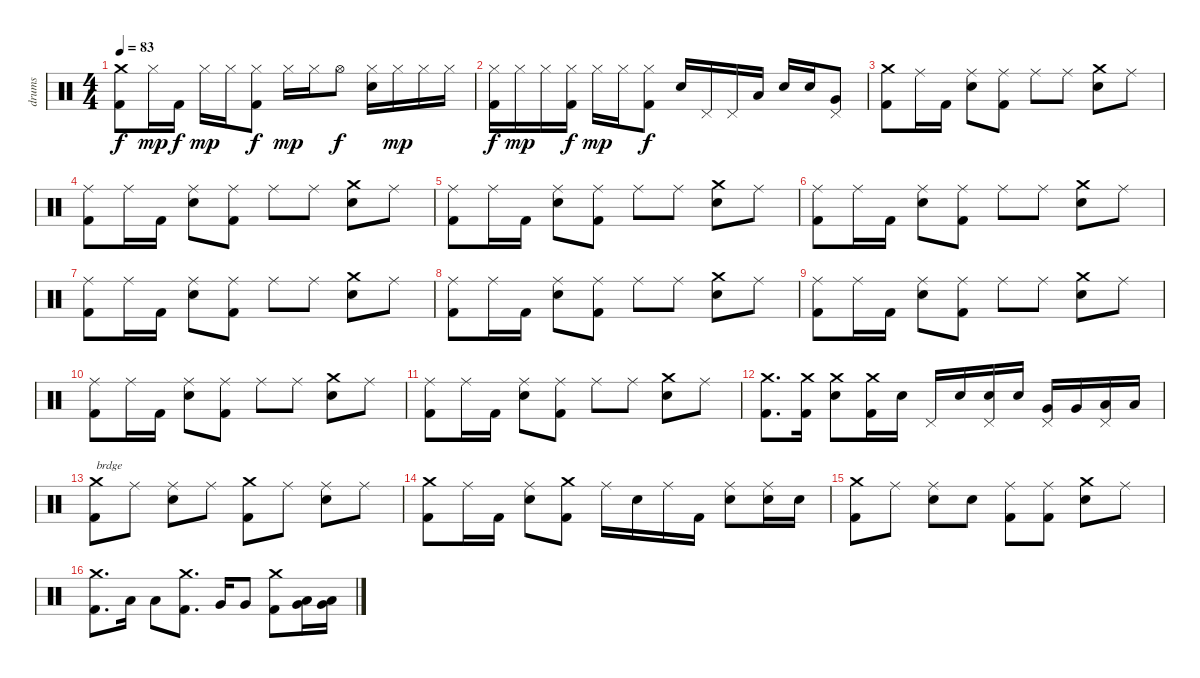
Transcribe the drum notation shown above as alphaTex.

\track ("drums" "drums") {instrument percussion}
\staff {score}
\articulation defaults
\ts (4 4)
\tempo 83
\clef neutral
\ks c
("Crash medium (hit)" "Kick (hit) 2").8{dy f} "Hi-Hat (closed)".16{dy mp} "Kick (hit) 2".16{dy f} "Hi-Hat (closed)".16{dy mp} "Hi-Hat (closed)".16 ("Hi-Hat (closed)" "Kick (hit) 2").8{dy f} "Hi-Hat (closed)".16{dy mp} "Hi-Hat (closed)".16 "Hi-Hat (open)".8{dy f} ("Hi-Hat (closed)" "Electric Snare (hit)").16 "Hi-Hat (closed)".16{dy mp} "Hi-Hat (closed)".16 "Hi-Hat (closed)".16 |
("Hi-Hat (closed)" "Kick (hit) 2").16{dy f} "Hi-Hat (closed)".16{dy mp} "Hi-Hat (closed)".16 ("Hi-Hat (closed)" "Kick (hit) 2").16{dy f} "Hi-Hat (closed)".16{dy mp} "Hi-Hat (closed)".16 ("Hi-Hat (closed)" "Kick (hit) 2").8{dy f} "Electric Snare (hit)".16 "Pedal Hi-Hat (hit)".16 "Pedal Hi-Hat (hit)".16 "Low Tom (hit)".16 "Electric Snare (hit)".16 "Electric Snare (hit)".16 ("Very Low Tom (hit)" "Pedal Hi-Hat (hit)").8 |
("Crash medium (hit)" "Kick (hit) 2").8 "Ride (middle)".16 "Kick (hit) 2".16 ("Ride (middle)" "Electric Snare (hit)").8 ("Ride (middle)" "Kick (hit) 2").8 "Ride (middle)".8 "Ride (middle)".8 ("Crash medium (hit)" "Electric Snare (hit)").8 "Ride (middle)".8 |
("Ride (middle)" "Kick (hit) 2").8 "Ride (middle)".16 "Kick (hit) 2".16 ("Ride (middle)" "Electric Snare (hit)").8 ("Ride (middle)" "Kick (hit) 2").8 "Ride (middle)".8 "Ride (middle)".8 ("Crash medium (hit)" "Electric Snare (hit)").8 "Ride (middle)".8 |
("Ride (middle)" "Kick (hit) 2").8 "Ride (middle)".16 "Kick (hit) 2".16 ("Ride (middle)" "Electric Snare (hit)").8 ("Ride (middle)" "Kick (hit) 2").8 "Ride (middle)".8 "Ride (middle)".8 ("Crash medium (hit)" "Electric Snare (hit)").8 "Ride (middle)".8 |
("Ride (middle)" "Kick (hit) 2").8 "Ride (middle)".16 "Kick (hit) 2".16 ("Ride (middle)" "Electric Snare (hit)").8 ("Ride (middle)" "Kick (hit) 2").8 "Ride (middle)".8 "Ride (middle)".8 ("Crash medium (hit)" "Electric Snare (hit)").8 "Ride (middle)".8 |
("Ride (middle)" "Kick (hit) 2").8 "Ride (middle)".16 "Kick (hit) 2".16 ("Ride (middle)" "Electric Snare (hit)").8 ("Ride (middle)" "Kick (hit) 2").8 "Ride (middle)".8 "Ride (middle)".8 ("Crash medium (hit)" "Electric Snare (hit)").8 "Ride (middle)".8 |
("Ride (middle)" "Kick (hit) 2").8 "Ride (middle)".16 "Kick (hit) 2".16 ("Ride (middle)" "Electric Snare (hit)").8 ("Ride (middle)" "Kick (hit) 2").8 "Ride (middle)".8 "Ride (middle)".8 ("Crash medium (hit)" "Electric Snare (hit)").8 "Ride (middle)".8 |
("Ride (middle)" "Kick (hit) 2").8 "Ride (middle)".16 "Kick (hit) 2".16 ("Ride (middle)" "Electric Snare (hit)").8 ("Ride (middle)" "Kick (hit) 2").8 "Ride (middle)".8 "Ride (middle)".8 ("Crash medium (hit)" "Electric Snare (hit)").8 "Ride (middle)".8 |
("Ride (middle)" "Kick (hit) 2").8 "Ride (middle)".16 "Kick (hit) 2".16 ("Ride (middle)" "Electric Snare (hit)").8 ("Ride (middle)" "Kick (hit) 2").8 "Ride (middle)".8 "Ride (middle)".8 ("Crash medium (hit)" "Electric Snare (hit)").8 "Ride (middle)".8 |
("Ride (middle)" "Kick (hit) 2").8 "Ride (middle)".16 "Kick (hit) 2".16 ("Ride (middle)" "Electric Snare (hit)").8 ("Ride (middle)" "Kick (hit) 2").8 "Ride (middle)".8 "Ride (middle)".8 ("Crash medium (hit)" "Electric Snare (hit)").8 "Ride (middle)".8 |
("Crash medium (hit)" "Kick (hit) 2").8{d} ("Crash medium (hit)" "Kick (hit) 2").16 ("Crash medium (hit)" "Electric Snare (hit)").8 ("Crash medium (hit)" "Kick (hit) 2").16 "Electric Snare (hit)".16 "Pedal Hi-Hat (hit)".16 "Electric Snare (hit)".16 ("Electric Snare (hit)" "Pedal Hi-Hat (hit)").16 "Electric Snare (hit)".16 ("Very Low Tom (hit)" "Pedal Hi-Hat (hit)").16 "Very Low Tom (hit)".16 ("Pedal Hi-Hat (hit)" "Low Floor Tom (hit)").16 "Low Floor Tom (hit)".16 |
("Crash medium (hit)" "Kick (hit) 2").8{txt "brdge"} "Ride (middle)".8 ("Ride (middle)" "Electric Snare (hit)").8 "Ride (middle)".8 ("Crash medium (hit)" "Kick (hit) 2").8 "Ride (middle)".8 ("Ride (middle)" "Electric Snare (hit)").8 "Ride (middle)".8 |
("Crash medium (hit)" "Kick (hit) 2").8 "Ride (middle)".16 "Kick (hit) 2".16 ("Ride (middle)" "Electric Snare (hit)").8 ("Crash medium (hit)" "Kick (hit) 2").8 "Ride (middle)".16 "Electric Snare (hit)".16 "Ride (middle)".16 "Kick (hit) 2".16 ("Ride (middle)" "Electric Snare (hit)").8 ("Ride (middle)" "Electric Snare (hit)").16 "Electric Snare (hit)".16 |
("Crash medium (hit)" "Kick (hit) 2").8 "Ride (middle)".8 ("Ride (middle)" "Electric Snare (hit)").8 "Snare (hit)".8 ("Ride (middle)" "Kick (hit) 2").8 ("Ride (middle)" "Kick (hit) 2").8 ("Crash medium (hit)" "Electric Snare (hit)").8 "Ride (middle)".8 |
("Crash medium (hit)" "Kick (hit) 2").8{d} "Low Tom (hit)".16 "Low Tom (hit)".8 ("Crash medium (hit)" "Kick (hit) 2").8{d} "Very Low Tom (hit)".16 "Very Low Tom (hit)".8 ("Crash medium (hit)" "Kick (hit) 2").8 ("Very Low Tom (hit)" "Low Floor Tom (hit)").16 ("Very Low Tom (hit)" "Low Floor Tom (hit)").16
